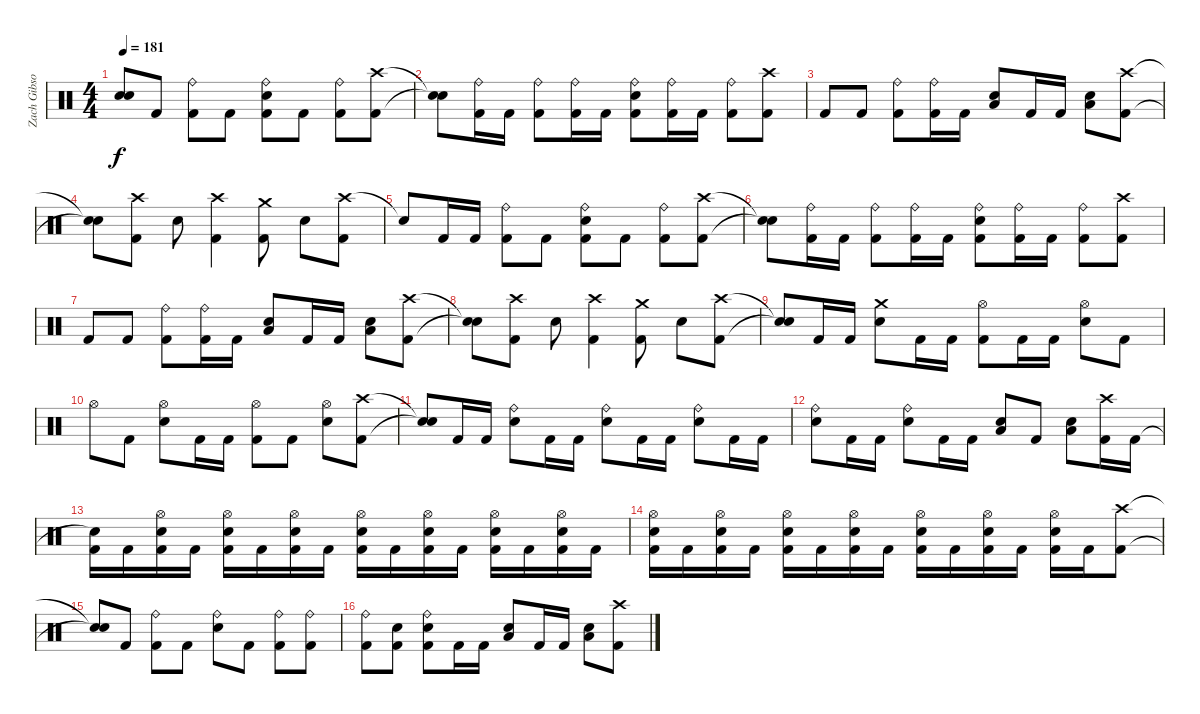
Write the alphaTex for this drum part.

\track ("Zach Gibson (Drums)" "Zach Gibso") {instrument percussion}
\staff {score}
\articulation defaults
\ts (4 4)
\tempo 181
\clef neutral
\ks c
("Snare (hit)"{t} "Snare (hit)"{t}).8{dy f} "Kick (hit) 2".8 ("Ride (bell)" "Kick (hit) 2").8 "Kick (hit) 2".8 ("Ride (bell)" "Snare (hit) 2" "Kick (hit) 2").8 "Kick (hit) 2".8 ("Ride (bell)" "Kick (hit) 2").8 ("Crash high (hit)" "Kick (hit) 2").8 |
("Snare (hit)"{t} "Snare (hit)"{t}).8 ("Ride (bell)" "Kick (hit) 2").16 "Kick (hit) 2".16 ("Ride (bell)" "Kick (hit) 2").8 ("Ride (bell)" "Kick (hit) 2").16 "Kick (hit) 2".16 ("Snare (hit) 2" "Ride (bell)" "Kick (hit) 2").8 ("Ride (bell)" "Kick (hit) 2").16 "Kick (hit) 2".16 ("Ride (bell)" "Kick (hit) 2").8 ("Crash high (hit)" "Kick (hit) 2").8 |
"Kick (hit) 2".8 "Kick (hit) 2".8 ("Ride (bell)" "Kick (hit) 2").8 ("Ride (bell)" "Kick (hit) 2").16 "Kick (hit) 2".16 ("Low Floor Tom (hit)" "Snare (hit) 2").8 "Kick (hit) 2".16 "Kick (hit) 2".16 ("Low Floor Tom (hit)" "Snare (hit) 2").8 ("Crash high (hit)" "Kick (hit) 2").8 |
("Snare (hit)"{t} "Snare (hit)"{t}).8 ("Crash high (hit)" "Kick (hit) 2").8 "Snare (hit) 2".8 ("Crash high (hit)" "Kick (hit) 2").4 ("Crash medium (hit)" "Kick (hit) 2").8 "Snare (hit) 2".8 ("Crash high (hit)" "Kick (hit) 2").8 |
"Snare (hit)"{t}.8 "Kick (hit) 2".16 "Kick (hit) 2".16 ("Ride (bell)" "Kick (hit) 2").8 "Kick (hit) 2".8 ("Ride (bell)" "Kick (hit) 2" "Snare (hit) 2").8 "Kick (hit) 2".8 ("Ride (bell)" "Kick (hit) 2").8 ("Crash high (hit)" "Kick (hit) 2").8 |
("Snare (hit)"{t} "Snare (hit)"{t}).8 ("Ride (bell)" "Kick (hit) 2").16 "Kick (hit) 2".16 ("Ride (bell)" "Kick (hit) 2").8 ("Ride (bell)" "Kick (hit) 2").16 "Kick (hit) 2".16 ("Snare (hit) 2" "Ride (bell)" "Kick (hit) 2").8 ("Ride (bell)" "Kick (hit) 2").16 "Kick (hit) 2".16 ("Ride (bell)" "Kick (hit) 2").8 ("Crash high (hit)" "Kick (hit) 2").8 |
"Kick (hit) 2".8 "Kick (hit) 2".8 ("Ride (bell)" "Kick (hit) 2").8 ("Ride (bell)" "Kick (hit) 2").16 "Kick (hit) 2".16 ("Low Floor Tom (hit)" "Snare (hit) 2").8 "Kick (hit) 2".16 "Kick (hit) 2".16 ("Low Floor Tom (hit)" "Snare (hit) 2").8 ("Crash high (hit)" "Kick (hit) 2").8 |
("Snare (hit)"{t} "Snare (hit)"{t}).8 ("Crash high (hit)" "Kick (hit) 2").8 "Snare (hit) 2".8 ("Crash high (hit)" "Kick (hit) 2").4 ("Crash medium (hit)" "Kick (hit) 2").8 "Snare (hit) 2".8 ("Crash high (hit)" "Kick (hit) 2").8 |
("Snare (hit)"{t} "Snare (hit)"{t}).8 "Kick (hit) 2".16 "Kick (hit) 2".16 ("Crash medium (hit)" "Snare (hit) 2").8 "Kick (hit) 2".16 "Kick (hit) 2".16 ("Kick (hit) 2" "Hi-Hat (open)").8 "Kick (hit) 2".16 "Kick (hit) 2".16 ("Hi-Hat (open)" "Snare (hit) 2").8 "Kick (hit) 2".8 |
"Hi-Hat (open)".8 "Kick (hit) 2".8 ("Hi-Hat (open)" "Snare (hit) 2").8 "Kick (hit) 2".16 "Kick (hit) 2".16 ("Kick (hit) 2" "Hi-Hat (open)").8 "Kick (hit) 2".8 ("Hi-Hat (open)" "Snare (hit) 2").8 ("Crash high (hit)" "Kick (hit) 2").8 |
("Snare (hit)"{t} "Snare (hit)"{t}).8 "Kick (hit) 2".16 "Kick (hit) 2".16 ("Ride (bell)" "Snare (hit) 2").8 "Kick (hit) 2".16 "Kick (hit) 2".16 ("Ride (bell)" "Snare (hit) 2").8 "Kick (hit) 2".16 "Kick (hit) 2".16 ("Ride (bell)" "Snare (hit) 2").8 "Kick (hit) 2".16 "Kick (hit) 2".16 |
("Ride (bell)" "Snare (hit) 2").8 "Kick (hit) 2".16 "Kick (hit) 2".16 ("Ride (bell)" "Snare (hit) 2").8 "Kick (hit) 2".16 "Kick (hit) 2".16 ("Low Floor Tom (hit)" "Snare (hit) 2").8 "Kick (hit) 2".8 ("Low Floor Tom (hit)" "Snare (hit) 2").8 ("Crash high (hit)" "Kick (hit) 2").16 "Kick (hit) 2".16 |
("Snare (hit)"{t} "Kick (hit) 2").16 "Kick (hit) 2".16 ("Hi-Hat (open)" "Snare (hit) 2" "Kick (hit) 2").16 "Kick (hit) 2".16 ("Hi-Hat (open)" "Snare (hit) 2" "Kick (hit) 2").16 "Kick (hit) 2".16 ("Hi-Hat (open)" "Snare (hit) 2" "Kick (hit) 2").16 "Kick (hit) 2".16 ("Hi-Hat (open)" "Snare (hit) 2" "Kick (hit) 2").16 "Kick (hit) 2".16 ("Hi-Hat (open)" "Snare (hit) 2" "Kick (hit) 2").16 "Kick (hit) 2".16 ("Hi-Hat (open)" "Snare (hit) 2" "Kick (hit) 2").16 "Kick (hit) 2".16 ("Hi-Hat (open)" "Snare (hit) 2" "Kick (hit) 2").16 "Kick (hit) 2".16 |
("Hi-Hat (open)" "Snare (hit) 2" "Kick (hit) 2").16 "Kick (hit) 2".16 ("Hi-Hat (open)" "Snare (hit) 2" "Kick (hit) 2").16 "Kick (hit) 2".16 ("Hi-Hat (open)" "Snare (hit) 2" "Kick (hit) 2").16 "Kick (hit) 2".16 ("Hi-Hat (open)" "Snare (hit) 2" "Kick (hit) 2").16 "Kick (hit) 2".16 ("Hi-Hat (open)" "Snare (hit) 2" "Kick (hit) 2").16 "Kick (hit) 2".16 ("Hi-Hat (open)" "Snare (hit) 2" "Kick (hit) 2").16 "Kick (hit) 2".16 ("Hi-Hat (open)" "Snare (hit) 2" "Kick (hit) 2").16 "Kick (hit) 2".16 ("Crash high (hit)" "Kick (hit) 2").8 |
("Snare (hit)"{t} "Snare (hit)"{t}).8 "Kick (hit) 2".8 ("Ride (bell)" "Kick (hit) 2").8 "Kick (hit) 2".8 ("Ride (bell)" "Snare (hit) 2").8 "Kick (hit) 2".8 ("Ride (bell)" "Kick (hit) 2").8 ("Ride (bell)" "Kick (hit) 2").8 |
("Ride (bell)" "Kick (hit) 2").8 ("Snare (hit) 2" "Kick (hit) 2").8 ("Snare (hit) 2" "Ride (bell)" "Kick (hit) 2").8 "Kick (hit) 2".16 "Kick (hit) 2".16 ("Low Floor Tom (hit)" "Snare (hit) 2").8 "Kick (hit) 2".16 "Kick (hit) 2".16 ("Low Floor Tom (hit)" "Snare (hit) 2").8 ("Crash high (hit)" "Kick (hit) 2").8
